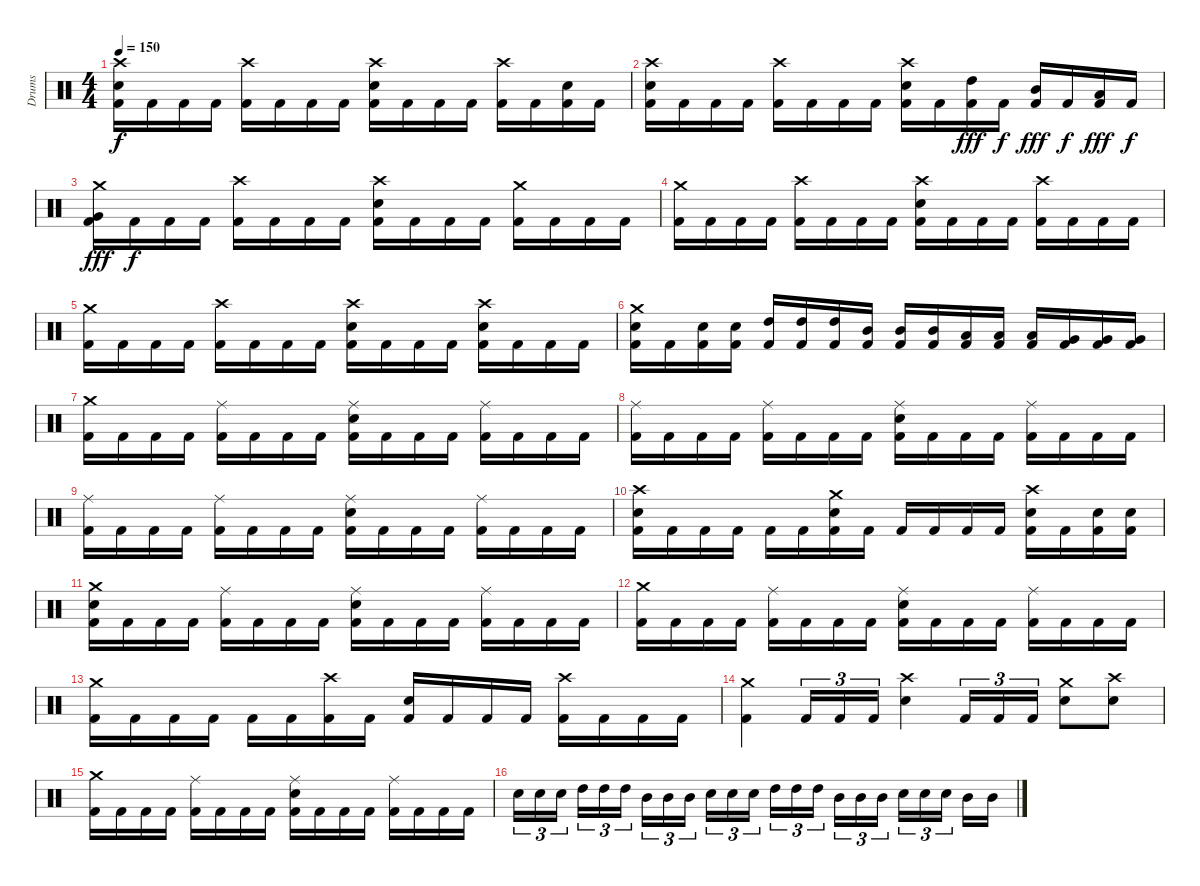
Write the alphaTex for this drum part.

\track ("Drums" "Drums") {instrument percussion}
\staff {score}
\articulation defaults
\ts (4 4)
\tempo 150
\clef neutral
\ks c
("Kick (hit) 2" "Electric Snare (hit)" "Crash high (hit)").16{dy f} "Kick (hit) 2".16 "Kick (hit) 2".16 "Kick (hit) 2".16 ("Kick (hit) 2" "Crash high (hit)").16 "Kick (hit) 2".16 "Kick (hit) 2".16 "Kick (hit) 2".16 ("Kick (hit) 2" "Electric Snare (hit)" "Crash high (hit)").16 "Kick (hit) 2".16 "Kick (hit) 2".16 "Kick (hit) 2".16 ("Kick (hit) 2" "Crash high (hit)").16 "Kick (hit) 2".16 ("Kick (hit) 2" "Electric Snare (hit)").16 "Kick (hit) 2".16 |
("Kick (hit) 2" "Electric Snare (hit)" "Crash high (hit)").16 "Kick (hit) 2".16 "Kick (hit) 2".16 "Kick (hit) 2".16 ("Kick (hit) 2" "Crash high (hit)").16 "Kick (hit) 2".16 "Kick (hit) 2".16 "Kick (hit) 2".16 ("Kick (hit) 2" "Electric Snare (hit)" "Crash high (hit)").16 "Kick (hit) 2".16 ("Kick (hit) 2" "High Tom (hit)").16{dy fff} "Kick (hit) 2".16{dy f} ("Kick (hit) 2" "Mid Tom (hit)").16{dy fff} "Kick (hit) 2".16{dy f} ("Kick (hit) 2" "Low Tom (hit)").16{dy fff} "Kick (hit) 2".16{dy f} |
("Kick (hit) 2" "Very Low Tom (hit)" "Crash medium (hit)").16{dy fff} "Kick (hit) 2".16{dy f} "Kick (hit) 2".16 "Kick (hit) 2".16 ("Kick (hit) 2" "Crash high (hit)").16 "Kick (hit) 2".16 "Kick (hit) 2".16 "Kick (hit) 2".16 ("Kick (hit) 2" "Electric Snare (hit)" "Crash high (hit)").16 "Kick (hit) 2".16 "Kick (hit) 2".16 "Kick (hit) 2".16 ("Kick (hit) 2" "Crash medium (hit)").16 "Kick (hit) 2".16 "Kick (hit) 2".16 "Kick (hit) 2".16 |
("Kick (hit) 2" "Crash medium (hit)").16 "Kick (hit) 2".16 "Kick (hit) 2".16 "Kick (hit) 2".16 ("Kick (hit) 2" "Crash high (hit)").16 "Kick (hit) 2".16 "Kick (hit) 2".16 "Kick (hit) 2".16 ("Kick (hit) 2" "Electric Snare (hit)" "Crash high (hit)").16 "Kick (hit) 2".16 "Kick (hit) 2".16 "Kick (hit) 2".16 ("Kick (hit) 2" "Crash high (hit)").16 "Kick (hit) 2".16 "Kick (hit) 2".16 "Kick (hit) 2".16 |
("Kick (hit) 2" "Crash medium (hit)").16 "Kick (hit) 2".16 "Kick (hit) 2".16 "Kick (hit) 2".16 ("Kick (hit) 2" "Crash high (hit)").16 "Kick (hit) 2".16 "Kick (hit) 2".16 "Kick (hit) 2".16 ("Kick (hit) 2" "Electric Snare (hit)" "Crash high (hit)").16 "Kick (hit) 2".16 "Kick (hit) 2".16 "Kick (hit) 2".16 ("Kick (hit) 2" "Electric Snare (hit)" "Crash high (hit)").16 "Kick (hit) 2".16 "Kick (hit) 2".16 "Kick (hit) 2".16 |
("Kick (hit) 2" "Electric Snare (hit)" "Crash medium (hit)").16 "Kick (hit) 2".16 ("Kick (hit) 2" "Electric Snare (hit)").16 ("Kick (hit) 2" "Electric Snare (hit)").16 ("Kick (hit) 2" "High Tom (hit)").16 ("Kick (hit) 2" "High Tom (hit)").16 ("Kick (hit) 2" "High Tom (hit)").16 ("Kick (hit) 2" "Mid Tom (hit)").16 ("Kick (hit) 2" "Mid Tom (hit)").16 ("Kick (hit) 2" "Mid Tom (hit)").16 ("Kick (hit) 2" "Low Tom (hit)").16 ("Kick (hit) 2" "Low Tom (hit)").16 ("Kick (hit) 2" "Low Tom (hit)").16 ("Kick (hit) 2" "Very Low Tom (hit)").16 ("Kick (hit) 2" "Very Low Tom (hit)").16 ("Kick (hit) 2" "Very Low Tom (hit)").16 |
("Kick (hit) 2" "Crash medium (hit)").16 "Kick (hit) 2".16 "Kick (hit) 2".16 "Kick (hit) 2".16 ("Kick (hit) 2" "Ride (middle)").16 "Kick (hit) 2".16 "Kick (hit) 2".16 "Kick (hit) 2".16 ("Kick (hit) 2" "Electric Snare (hit)" "Ride (middle)").16 "Kick (hit) 2".16 "Kick (hit) 2".16 "Kick (hit) 2".16 ("Kick (hit) 2" "Ride (middle)").16 "Kick (hit) 2".16 "Kick (hit) 2".16 "Kick (hit) 2".16 |
("Kick (hit) 2" "Ride (middle)").16 "Kick (hit) 2".16 "Kick (hit) 2".16 "Kick (hit) 2".16 ("Kick (hit) 2" "Ride (middle)").16 "Kick (hit) 2".16 "Kick (hit) 2".16 "Kick (hit) 2".16 ("Kick (hit) 2" "Electric Snare (hit)" "Ride (middle)").16 "Kick (hit) 2".16 "Kick (hit) 2".16 "Kick (hit) 2".16 ("Kick (hit) 2" "Ride (middle)").16 "Kick (hit) 2".16 "Kick (hit) 2".16 "Kick (hit) 2".16 |
("Kick (hit) 2" "Ride (middle)").16 "Kick (hit) 2".16 "Kick (hit) 2".16 "Kick (hit) 2".16 ("Kick (hit) 2" "Ride (middle)").16 "Kick (hit) 2".16 "Kick (hit) 2".16 "Kick (hit) 2".16 ("Kick (hit) 2" "Electric Snare (hit)" "Ride (middle)").16 "Kick (hit) 2".16 "Kick (hit) 2".16 "Kick (hit) 2".16 ("Kick (hit) 2" "Ride (middle)").16 "Kick (hit) 2".16 "Kick (hit) 2".16 "Kick (hit) 2".16 |
("Kick (hit) 2" "Electric Snare (hit)" "Crash high (hit)").16 "Kick (hit) 2".16 "Kick (hit) 2".16 "Kick (hit) 2".16 "Kick (hit) 2".16 "Kick (hit) 2".16 ("Kick (hit) 2" "Electric Snare (hit)" "Crash medium (hit)").16 "Kick (hit) 2".16 "Kick (hit) 2".16 "Kick (hit) 2".16 "Kick (hit) 2".16 "Kick (hit) 2".16 ("Kick (hit) 2" "Electric Snare (hit)" "Crash high (hit)").16 "Kick (hit) 2".16 ("Kick (hit) 2" "Electric Snare (hit)").16 ("Kick (hit) 2" "Electric Snare (hit)").16 |
("Kick (hit) 2" "Electric Snare (hit)" "Crash medium (hit)").16 "Kick (hit) 2".16 "Kick (hit) 2".16 "Kick (hit) 2".16 ("Kick (hit) 2" "Ride (middle)").16 "Kick (hit) 2".16 "Kick (hit) 2".16 "Kick (hit) 2".16 ("Kick (hit) 2" "Electric Snare (hit)" "Ride (middle)").16 "Kick (hit) 2".16 "Kick (hit) 2".16 "Kick (hit) 2".16 ("Kick (hit) 2" "Ride (middle)").16 "Kick (hit) 2".16 "Kick (hit) 2".16 "Kick (hit) 2".16 |
("Kick (hit) 2" "Crash medium (hit)").16 "Kick (hit) 2".16 "Kick (hit) 2".16 "Kick (hit) 2".16 ("Kick (hit) 2" "Ride (middle)").16 "Kick (hit) 2".16 "Kick (hit) 2".16 "Kick (hit) 2".16 ("Kick (hit) 2" "Electric Snare (hit)" "Ride (middle)").16 "Kick (hit) 2".16 "Kick (hit) 2".16 "Kick (hit) 2".16 ("Kick (hit) 2" "Ride (middle)").16 "Kick (hit) 2".16 "Kick (hit) 2".16 "Kick (hit) 2".16 |
("Kick (hit) 2" "Crash medium (hit)").16 "Kick (hit) 2".16 "Kick (hit) 2".16 "Kick (hit) 2".16 "Kick (hit) 2".16 "Kick (hit) 2".16 ("Kick (hit) 2" "Crash high (hit)").16 "Kick (hit) 2".16 ("Kick (hit) 2" "Electric Snare (hit)").16 "Kick (hit) 2".16 "Kick (hit) 2".16 "Kick (hit) 2".16 ("Kick (hit) 2" "Crash high (hit)").16 "Kick (hit) 2".16 "Kick (hit) 2".16 "Kick (hit) 2".16 |
("Kick (hit) 2" "Crash medium (hit)").4 "Kick (hit) 2".16{tu (3 2)} "Kick (hit) 2".16{tu (3 2)} "Kick (hit) 2".16{tu (3 2)} ("Electric Snare (hit)" "Crash high (hit)").4 "Kick (hit) 2".16{tu (3 2)} "Kick (hit) 2".16{tu (3 2)} "Kick (hit) 2".16{tu (3 2)} ("Electric Snare (hit)" "Crash medium (hit)").8 ("Electric Snare (hit)" "Crash high (hit)").8 |
("Kick (hit) 2" "Crash medium (hit)").16 "Kick (hit) 2".16 "Kick (hit) 2".16 "Kick (hit) 2".16 ("Kick (hit) 2" "Ride (middle)").16 "Kick (hit) 2".16 "Kick (hit) 2".16 "Kick (hit) 2".16 ("Kick (hit) 2" "Electric Snare (hit)" "Ride (middle)").16 "Kick (hit) 2".16 "Kick (hit) 2".16 "Kick (hit) 2".16 ("Kick (hit) 2" "Ride (middle)").16 "Kick (hit) 2".16 "Kick (hit) 2".16 "Kick (hit) 2".16 |
"Electric Snare (hit)".16{tu (3 2)} "Electric Snare (hit)".16{tu (3 2)} "Electric Snare (hit)".16{tu (3 2)} "High Tom (hit)".16{tu (3 2)} "High Tom (hit)".16{tu (3 2)} "High Tom (hit)".16{tu (3 2)} "Mid Tom (hit)".16{tu (3 2)} "Mid Tom (hit)".16{tu (3 2)} "Mid Tom (hit)".16{tu (3 2)} "Electric Snare (hit)".16{tu (3 2)} "Electric Snare (hit)".16{tu (3 2)} "Electric Snare (hit)".16{tu (3 2)} "High Tom (hit)".16{tu (3 2)} "High Tom (hit)".16{tu (3 2)} "High Tom (hit)".16{tu (3 2)} "Mid Tom (hit)".16{tu (3 2)} "Mid Tom (hit)".16{tu (3 2)} "Mid Tom (hit)".16{tu (3 2)} "Electric Snare (hit)".16{tu (3 2)} "Electric Snare (hit)".16{tu (3 2)} "Electric Snare (hit)".16{tu (3 2)} "Mid Tom (hit)".16 "Mid Tom (hit)".16
